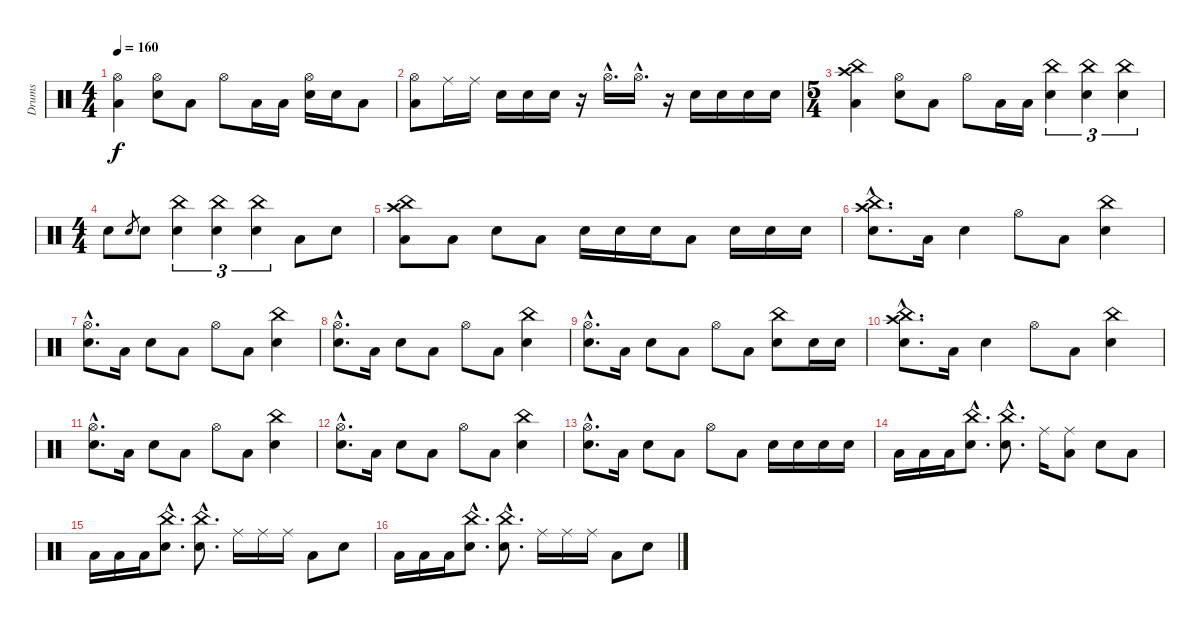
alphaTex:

\track ("Drums" "Drums") {instrument percussion}
\staff {score}
\articulation defaults
\ts (4 4)
\tempo 160
\clef neutral
\ks aminor
("Hi-Hat (open)" "Low Floor Tom (hit)").4{dy f} ("Hi-Hat (open)" "Electric Snare (hit)").8 "Low Floor Tom (hit)".8 "Hi-Hat (open)".8 "Low Floor Tom (hit)".16 "Low Floor Tom (hit)".16 ("Hi-Hat (open)" "Electric Snare (hit)").16 "Electric Snare (hit)".16 "Low Floor Tom (hit)".8 |
("Hi-Hat (open)" "Low Floor Tom (hit)").8 "Ride (middle)".16 "Ride (middle)".16 "Electric Snare (hit)".16 "Electric Snare (hit)".16 "Electric Snare (hit)".16 r.16 "Hi-Hat (open)"{hac}.16{d} "Hi-Hat (open)"{hac}.16{d} r.16 "Electric Snare (hit)".16 "Electric Snare (hit)".16 "Electric Snare (hit)".16 "Electric Snare (hit)".16 |
\ts (5 4)
("Crash high (hit)" "China (hit)" "Low Floor Tom (hit)").4 ("Hi-Hat (open)" "Electric Snare (hit)").8 "Low Floor Tom (hit)".8 "Hi-Hat (open)".8 "Low Floor Tom (hit)".16 "Low Floor Tom (hit)".16 ("China (hit)" "Electric Snare (hit)").4{tu (3 2)} ("China (hit)" "Electric Snare (hit)").4{tu (3 2)} ("China (hit)" "Electric Snare (hit)").4{tu (3 2)} |
\ts (4 4)
"Electric Snare (hit)".8 "Electric Snare (hit)".8{gr} "Electric Snare (hit)".8 ("China (hit)" "Electric Snare (hit)").4{tu (3 2)} ("China (hit)" "Electric Snare (hit)").4{tu (3 2)} ("China (hit)" "Electric Snare (hit)").4{tu (3 2)} "Low Floor Tom (hit)".8 "Electric Snare (hit)".8 |
("Crash high (hit)" "China (hit)" "Low Floor Tom (hit)").8 "Low Floor Tom (hit)".8 "Electric Snare (hit)".8 "Low Floor Tom (hit)".8 "Electric Snare (hit)".16 "Electric Snare (hit)".16 "Electric Snare (hit)".16 "Low Floor Tom (hit)".8 "Electric Snare (hit)".16 "Electric Snare (hit)".16 "Electric Snare (hit)".16 |
("China (hit)"{hac} "Crash high (hit)"{hac} "Electric Snare (hit)"{hac}).8{d} "Low Floor Tom (hit)".16 "Electric Snare (hit)".4 "Hi-Hat (open)".8 "Low Floor Tom (hit)".8 ("China (hit)" "Electric Snare (hit)").4 |
("Hi-Hat (open)"{hac} "Electric Snare (hit)"{hac}).8{d} "Low Floor Tom (hit)".16 "Electric Snare (hit)".8 "Low Floor Tom (hit)".8 "Hi-Hat (open)".8 "Low Floor Tom (hit)".8 ("China (hit)" "Electric Snare (hit)").4 |
("Hi-Hat (open)"{hac} "Electric Snare (hit)"{hac}).8{d} "Low Floor Tom (hit)".16 "Electric Snare (hit)".8 "Low Floor Tom (hit)".8 "Hi-Hat (open)".8 "Low Floor Tom (hit)".8 ("China (hit)" "Electric Snare (hit)").4 |
("Hi-Hat (open)"{hac} "Electric Snare (hit)"{hac}).8{d} "Low Floor Tom (hit)".16 "Electric Snare (hit)".8 "Low Floor Tom (hit)".8 "Hi-Hat (open)".8 "Low Floor Tom (hit)".8 ("China (hit)" "Electric Snare (hit)").8 "Electric Snare (hit)".16 "Electric Snare (hit)".16 |
("China (hit)"{hac} "Crash high (hit)"{hac} "Electric Snare (hit)"{hac}).8{d} "Low Floor Tom (hit)".16 "Electric Snare (hit)".4 "Hi-Hat (open)".8 "Low Floor Tom (hit)".8 ("China (hit)" "Electric Snare (hit)").4 |
("Hi-Hat (open)"{hac} "Electric Snare (hit)"{hac}).8{d} "Low Floor Tom (hit)".16 "Electric Snare (hit)".8 "Low Floor Tom (hit)".8 "Hi-Hat (open)".8 "Low Floor Tom (hit)".8 ("China (hit)" "Electric Snare (hit)").4 |
("Hi-Hat (open)"{hac} "Electric Snare (hit)"{hac}).8{d} "Low Floor Tom (hit)".16 "Electric Snare (hit)".8 "Low Floor Tom (hit)".8 "Hi-Hat (open)".8 "Low Floor Tom (hit)".8 ("China (hit)" "Electric Snare (hit)").4 |
("Hi-Hat (open)"{hac} "Electric Snare (hit)"{hac}).8{d} "Low Floor Tom (hit)".16 "Electric Snare (hit)".8 "Low Floor Tom (hit)".8 "Hi-Hat (open)".8 "Low Floor Tom (hit)".8 "Electric Snare (hit)".16 "Electric Snare (hit)".16 "Electric Snare (hit)".16 "Electric Snare (hit)".16 |
"Low Floor Tom (hit)".16 "Low Floor Tom (hit)".16 "Low Floor Tom (hit)".16 ("China (hit)"{hac} "Electric Snare (hit)"{hac}).8{d} ("China (hit)"{hac} "Electric Snare (hit)"{hac}).8{d} "Ride (middle)".16 ("Ride (middle)" "Low Floor Tom (hit)").8 "Electric Snare (hit)".8 "Low Floor Tom (hit)".8 |
"Low Floor Tom (hit)".16 "Low Floor Tom (hit)".16 "Low Floor Tom (hit)".16 ("China (hit)"{hac} "Electric Snare (hit)"{hac}).8{d} ("China (hit)"{hac} "Electric Snare (hit)"{hac}).8{d} "Ride (middle)".16 "Ride (middle)".16 "Ride (middle)".16 "Low Floor Tom (hit)".8 "Electric Snare (hit)".8 |
"Low Floor Tom (hit)".16 "Low Floor Tom (hit)".16 "Low Floor Tom (hit)".16 ("China (hit)"{hac} "Electric Snare (hit)"{hac}).8{d} ("China (hit)"{hac} "Electric Snare (hit)"{hac}).8{d} "Ride (middle)".16 "Ride (middle)".16 "Ride (middle)".16 "Low Floor Tom (hit)".8 "Electric Snare (hit)".8
